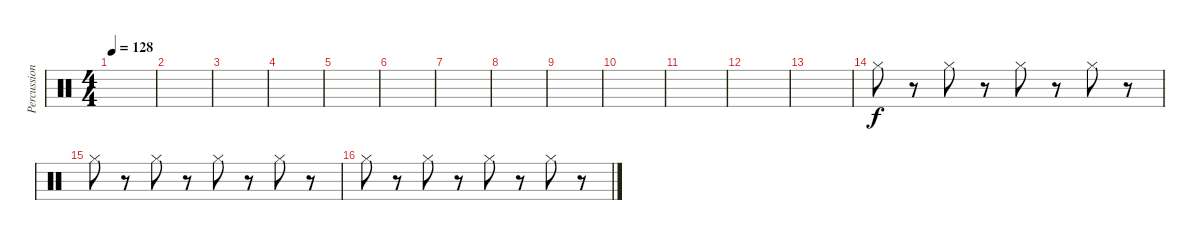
\track ("Percussion" "Percussion") {instrument percussion}
\staff {score}
\articulation defaults
\ts (4 4)
\tempo 128
\clef neutral
\ks c
|
|
|
|
|
|
|
|
|
|
|
|
|
"Hi-Hat (closed)".8 r.8 "Hi-Hat (closed)".8 r.8 "Hi-Hat (closed)".8 r.8 "Hi-Hat (closed)".8 r.8 |
"Hi-Hat (closed)".8 r.8 "Hi-Hat (closed)".8 r.8 "Hi-Hat (closed)".8 r.8 "Hi-Hat (closed)".8 r.8 |
"Hi-Hat (closed)".8 r.8 "Hi-Hat (closed)".8 r.8 "Hi-Hat (closed)".8 r.8 "Hi-Hat (closed)".8 r.8
